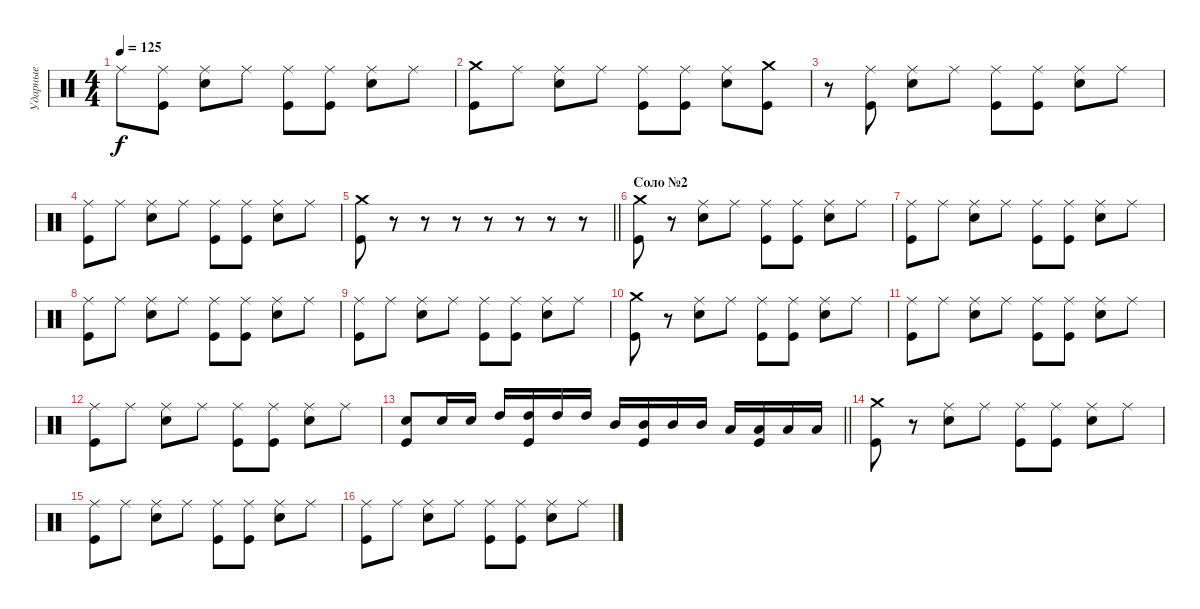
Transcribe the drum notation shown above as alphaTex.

\track ("Ударные" "Ударные") {instrument percussion}
\staff {score}
\articulation defaults
\ts (4 4)
\tempo 125
\clef neutral
\ks c "Ride (middle)"{t}.8{dy f}
("Ride (middle)" "Kick (hit)").8 ("Ride (middle)" "Electric Snare (hit)").8 "Ride (middle)".8 ("Ride (middle)" "Kick (hit)").8 ("Ride (middle)" "Kick (hit)").8 ("Ride (middle)" "Electric Snare (hit)").8 "Ride (middle)".8 |
("Crash medium (hit)" "Kick (hit)").8 "Ride (middle)".8 ("Ride (middle)" "Electric Snare (hit)").8 "Ride (middle)".8 ("Ride (middle)" "Kick (hit)").8 ("Ride (middle)" "Kick (hit)").8 ("Ride (middle)" "Electric Snare (hit)").8 ("Crash medium (hit)" "Kick (hit)").8 |
r.8 ("Ride (middle)" "Kick (hit)").8 ("Ride (middle)" "Electric Snare (hit)").8 "Ride (middle)".8 ("Ride (middle)" "Kick (hit)").8 ("Ride (middle)" "Kick (hit)").8 ("Ride (middle)" "Electric Snare (hit)").8 "Ride (middle)".8 |
("Ride (middle)" "Kick (hit)").8 "Ride (middle)".8 ("Ride (middle)" "Electric Snare (hit)").8 "Ride (middle)".8 ("Ride (middle)" "Kick (hit)").8 ("Ride (middle)" "Kick (hit)").8 ("Ride (middle)" "Electric Snare (hit)").8 "Ride (middle)".8 |
\barLineRight lightlight
("Crash medium (hit)" "Kick (hit)").8 r.8 r.8 r.8 r.8 r.8 r.8 r.8 |
\section ("" "Соло №2")
("Crash medium (hit)" "Kick (hit)").8 r.8 ("Ride (middle)" "Electric Snare (hit)").8 "Ride (middle)".8 ("Ride (middle)" "Kick (hit)").8 ("Ride (middle)" "Kick (hit)").8 ("Ride (middle)" "Electric Snare (hit)").8 "Ride (middle)".8 |
("Ride (middle)" "Kick (hit)").8 "Ride (middle)".8 ("Ride (middle)" "Electric Snare (hit)").8 "Ride (middle)".8 ("Ride (middle)" "Kick (hit)").8 ("Ride (middle)" "Kick (hit)").8 ("Ride (middle)" "Electric Snare (hit)").8 "Ride (middle)".8 |
("Ride (middle)" "Kick (hit)").8 "Ride (middle)".8 ("Ride (middle)" "Electric Snare (hit)").8 "Ride (middle)".8 ("Ride (middle)" "Kick (hit)").8 ("Ride (middle)" "Kick (hit)").8 ("Ride (middle)" "Electric Snare (hit)").8 "Ride (middle)".8 |
("Ride (middle)" "Kick (hit)").8 "Ride (middle)".8 ("Ride (middle)" "Electric Snare (hit)").8 "Ride (middle)".8 ("Ride (middle)" "Kick (hit)").8 ("Ride (middle)" "Kick (hit)").8 ("Ride (middle)" "Electric Snare (hit)").8 "Ride (middle)".8 |
("Crash medium (hit)" "Kick (hit)").8 r.8 ("Ride (middle)" "Electric Snare (hit)").8 "Ride (middle)".8 ("Ride (middle)" "Kick (hit)").8 ("Ride (middle)" "Kick (hit)").8 ("Ride (middle)" "Electric Snare (hit)").8 "Ride (middle)".8 |
("Ride (middle)" "Kick (hit)").8 "Ride (middle)".8 ("Ride (middle)" "Electric Snare (hit)").8 "Ride (middle)".8 ("Ride (middle)" "Kick (hit)").8 ("Ride (middle)" "Kick (hit)").8 ("Ride (middle)" "Electric Snare (hit)").8 "Ride (middle)".8 |
("Ride (middle)" "Kick (hit)").8 "Ride (middle)".8 ("Ride (middle)" "Electric Snare (hit)").8 "Ride (middle)".8 ("Ride (middle)" "Kick (hit)").8 ("Ride (middle)" "Kick (hit)").8 ("Ride (middle)" "Electric Snare (hit)").8 "Ride (middle)".8 |
\barLineRight lightlight
("Electric Snare (hit)" "Kick (hit)").8 "Electric Snare (hit)".16 "Electric Snare (hit)".16 "High Tom (hit)".16 ("High Tom (hit)" "Kick (hit)").16 "High Tom (hit)".16 "High Tom (hit)".16 "Mid Tom (hit)".16 ("Mid Tom (hit)" "Kick (hit)").16 "Mid Tom (hit)".16 "Mid Tom (hit)".16 "Low Tom (hit)".16 ("Low Tom (hit)" "Kick (hit)").16 "Low Tom (hit)".16 "Low Tom (hit)".16 |
\section ("" " ")
("Crash medium (hit)" "Kick (hit)").8 r.8 ("Ride (middle)" "Electric Snare (hit)").8 "Ride (middle)".8 ("Ride (middle)" "Kick (hit)").8 ("Ride (middle)" "Kick (hit)").8 ("Ride (middle)" "Electric Snare (hit)").8 "Ride (middle)".8 |
("Ride (middle)" "Kick (hit)").8 "Ride (middle)".8 ("Ride (middle)" "Electric Snare (hit)").8 "Ride (middle)".8 ("Ride (middle)" "Kick (hit)").8 ("Ride (middle)" "Kick (hit)").8 ("Ride (middle)" "Electric Snare (hit)").8 "Ride (middle)".8 |
("Ride (middle)" "Kick (hit)").8 "Ride (middle)".8 ("Ride (middle)" "Electric Snare (hit)").8 "Ride (middle)".8 ("Ride (middle)" "Kick (hit)").8 ("Ride (middle)" "Kick (hit)").8 ("Ride (middle)" "Electric Snare (hit)").8 "Ride (middle)".8
